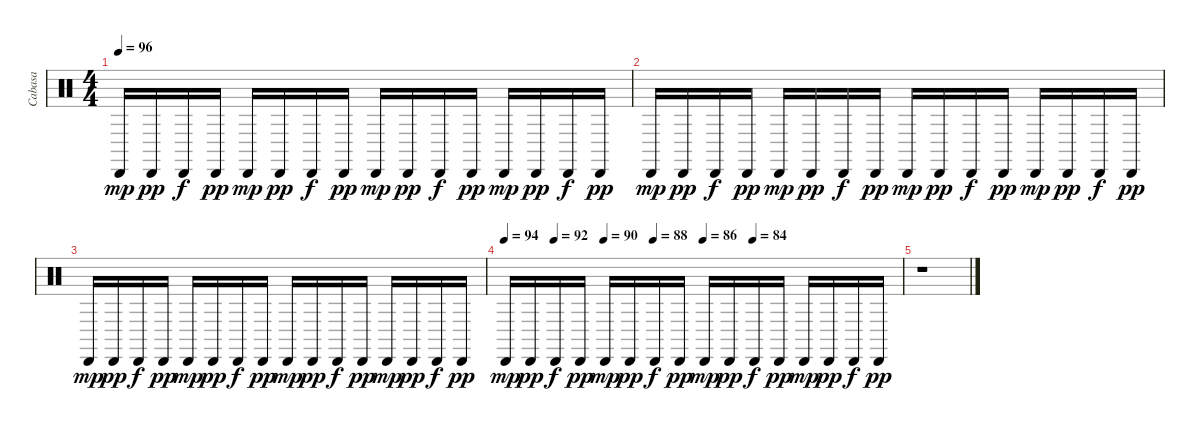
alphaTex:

\track ("Cabasa" "Cabasa") {instrument percussion}
\staff {score}
\articulation defaults
\ts (4 4)
\tempo 96
\clef neutral
\ks c "Cabasa (hit)".16{dy mp} "Cabasa (hit)".16{dy pp} "Cabasa (hit)".16{dy f} "Cabasa (hit)".16{dy pp} "Cabasa (hit)".16{dy mp} "Cabasa (hit)".16{dy pp} "Cabasa (hit)".16{dy f} "Cabasa (hit)".16{dy pp} "Cabasa (hit)".16{dy mp} "Cabasa (hit)".16{dy pp} "Cabasa (hit)".16{dy f} "Cabasa (hit)".16{dy pp} "Cabasa (hit)".16{dy mp} "Cabasa (hit)".16{dy pp} "Cabasa (hit)".16{dy f} "Cabasa (hit)".16{dy pp}
|
"Cabasa (hit)".16{dy mp} "Cabasa (hit)".16{dy pp} "Cabasa (hit)".16{dy f} "Cabasa (hit)".16{dy pp} "Cabasa (hit)".16{dy mp} "Cabasa (hit)".16{dy pp} "Cabasa (hit)".16{dy f} "Cabasa (hit)".16{dy pp} "Cabasa (hit)".16{dy mp} "Cabasa (hit)".16{dy pp} "Cabasa (hit)".16{dy f} "Cabasa (hit)".16{dy pp} "Cabasa (hit)".16{dy mp} "Cabasa (hit)".16{dy pp} "Cabasa (hit)".16{dy f} "Cabasa (hit)".16{dy pp} |
"Cabasa (hit)".16{dy mp} "Cabasa (hit)".16{dy pp} "Cabasa (hit)".16{dy f} "Cabasa (hit)".16{dy pp} "Cabasa (hit)".16{dy mp} "Cabasa (hit)".16{dy pp} "Cabasa (hit)".16{dy f} "Cabasa (hit)".16{dy pp} "Cabasa (hit)".16{dy mp} "Cabasa (hit)".16{dy pp} "Cabasa (hit)".16{dy f} "Cabasa (hit)".16{dy pp} "Cabasa (hit)".16{dy mp} "Cabasa (hit)".16{dy pp} "Cabasa (hit)".16{dy f} "Cabasa (hit)".16{dy pp} |
\tempo 94
\tempo (92 0.125)
\tempo (90 0.25)
\tempo (88 0.375)
\tempo (86 0.5)
\tempo (84 0.625)
"Cabasa (hit)".16{dy mp} "Cabasa (hit)".16{dy pp} "Cabasa (hit)".16{dy f} "Cabasa (hit)".16{dy pp} "Cabasa (hit)".16{dy mp} "Cabasa (hit)".16{dy pp} "Cabasa (hit)".16{dy f} "Cabasa (hit)".16{dy pp} "Cabasa (hit)".16{dy mp} "Cabasa (hit)".16{dy pp} "Cabasa (hit)".16{dy f} "Cabasa (hit)".16{dy pp} "Cabasa (hit)".16{dy mp} "Cabasa (hit)".16{dy pp} "Cabasa (hit)".16{dy f} "Cabasa (hit)".16{dy pp} |
r.1
